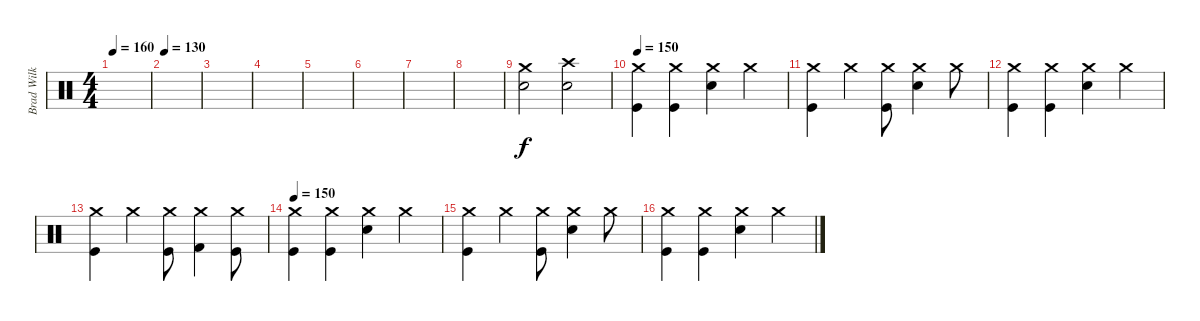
\track ("Brad Wilk" "Brad Wilk") {instrument percussion}
\staff {score}
\articulation defaults
\ts (4 4)
\tempo 160
\clef neutral
\ks c
|
\tempo 130
|
|
|
|
|
|
|
("Snare (hit) 2" "Crash medium (hit)").2 ("Snare (hit) 2" "Crash high (hit)").2 |
\tempo 150
("Crash medium (hit)" "Kick (hit)").4 ("Crash medium (hit)" "Kick (hit)").4 ("Crash medium (hit)" "Electric Snare (hit)").4 "Crash medium (hit)".4 |
("Crash medium (hit)" "Kick (hit)").4 "Crash medium (hit)".4 ("Crash medium (hit)" "Kick (hit)").8 ("Crash medium (hit)" "Electric Snare (hit)").4 "Crash medium (hit)".8 |
("Crash medium (hit)" "Kick (hit)").4 ("Crash medium (hit)" "Kick (hit)").4 ("Crash medium (hit)" "Electric Snare (hit)").4 "Crash medium (hit)".4 |
("Crash medium (hit)" "Kick (hit)").4 "Crash medium (hit)".4 ("Crash medium (hit)" "Kick (hit)").8 ("Crash medium (hit)" "Kick (hit) 2").4 ("Crash medium (hit)" "Kick (hit)").8 |
\tempo 150
("Crash medium (hit)" "Kick (hit)").4 ("Crash medium (hit)" "Kick (hit)").4 ("Crash medium (hit)" "Electric Snare (hit)").4 "Crash medium (hit)".4 |
("Crash medium (hit)" "Kick (hit)").4 "Crash medium (hit)".4 ("Crash medium (hit)" "Kick (hit)").8 ("Crash medium (hit)" "Electric Snare (hit)").4 "Crash medium (hit)".8 |
("Crash medium (hit)" "Kick (hit)").4 ("Crash medium (hit)" "Kick (hit)").4 ("Crash medium (hit)" "Electric Snare (hit)").4 "Crash medium (hit)".4
